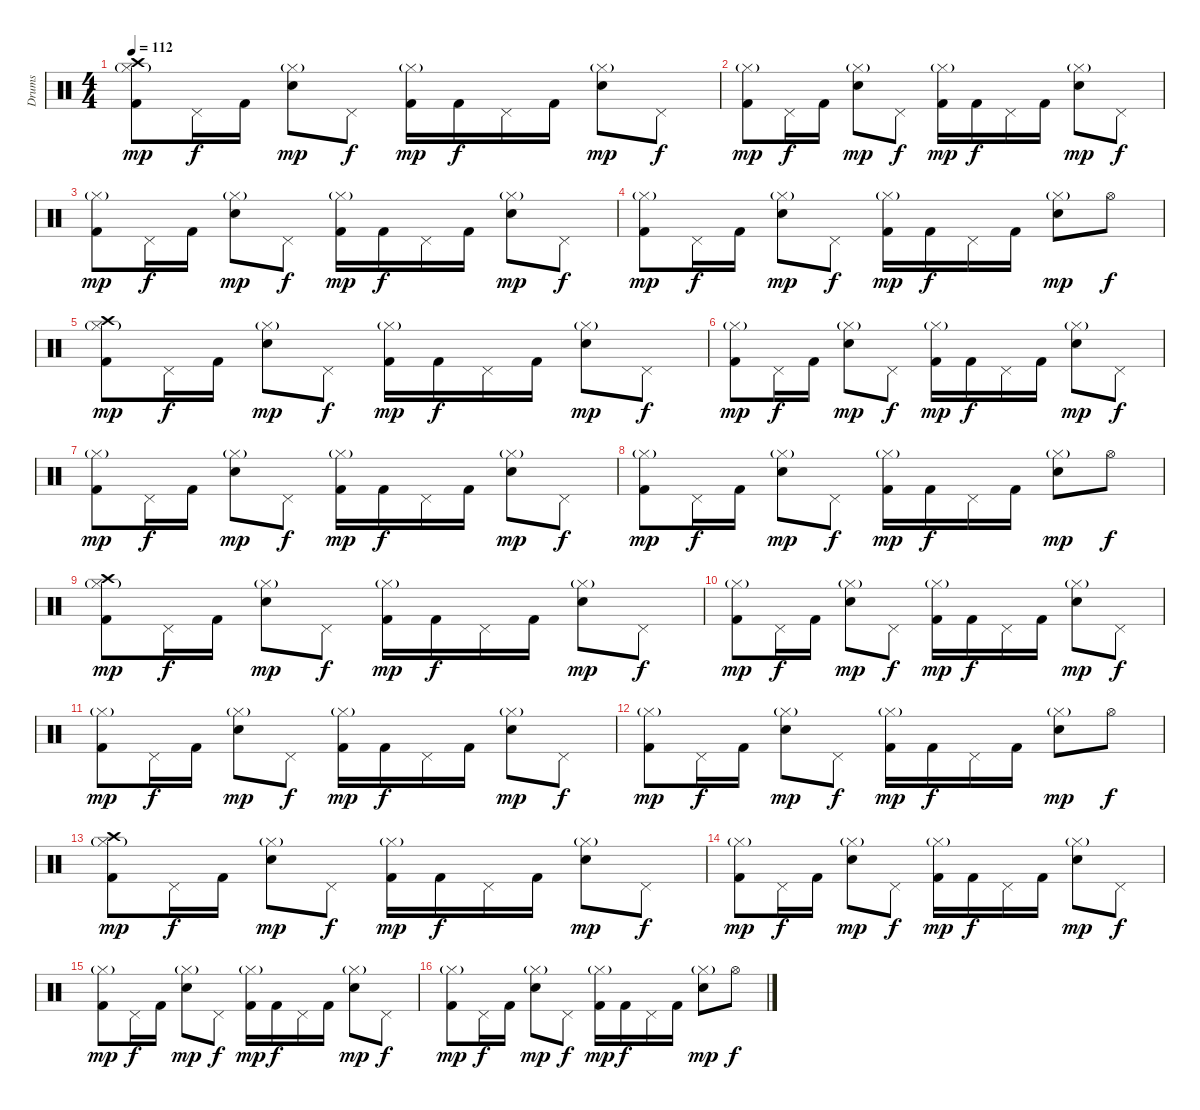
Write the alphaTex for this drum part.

\track ("Drums" "Drums") {instrument percussion}
\staff {score}
\articulation defaults
\ts (4 4)
\tempo 112
\clef neutral
\ks c
("Hi-Hat (closed)"{g} "Crash high (hit)" "Kick (hit) 2").8{dy mp} "Pedal Hi-Hat (hit)".16{dy f} "Kick (hit) 2".16 ("Hi-Hat (closed)"{g} "Snare (hit) 2").8{dy mp} "Pedal Hi-Hat (hit)".8{dy f} ("Hi-Hat (closed)"{g} "Kick (hit) 2").16{dy mp} "Kick (hit) 2".16{dy f} "Pedal Hi-Hat (hit)".16 "Kick (hit) 2".16 ("Hi-Hat (closed)"{g} "Snare (hit) 2").8{dy mp} "Pedal Hi-Hat (hit)".8{dy f} |
("Hi-Hat (closed)"{g} "Kick (hit) 2").8{dy mp} "Pedal Hi-Hat (hit)".16{dy f} "Kick (hit) 2".16 ("Hi-Hat (closed)"{g} "Snare (hit) 2").8{dy mp} "Pedal Hi-Hat (hit)".8{dy f} ("Hi-Hat (closed)"{g} "Kick (hit) 2").16{dy mp} "Kick (hit) 2".16{dy f} "Pedal Hi-Hat (hit)".16 "Kick (hit) 2".16 ("Hi-Hat (closed)"{g} "Snare (hit) 2").8{dy mp} "Pedal Hi-Hat (hit)".8{dy f} |
("Hi-Hat (closed)"{g} "Kick (hit) 2").8{dy mp} "Pedal Hi-Hat (hit)".16{dy f} "Kick (hit) 2".16 ("Hi-Hat (closed)"{g} "Snare (hit) 2").8{dy mp} "Pedal Hi-Hat (hit)".8{dy f} ("Hi-Hat (closed)"{g} "Kick (hit) 2").16{dy mp} "Kick (hit) 2".16{dy f} "Pedal Hi-Hat (hit)".16 "Kick (hit) 2".16 ("Hi-Hat (closed)"{g} "Snare (hit) 2").8{dy mp} "Pedal Hi-Hat (hit)".8{dy f} |
("Hi-Hat (closed)"{g} "Kick (hit) 2").8{dy mp} "Pedal Hi-Hat (hit)".16{dy f} "Kick (hit) 2".16 ("Hi-Hat (closed)"{g} "Snare (hit) 2").8{dy mp} "Pedal Hi-Hat (hit)".8{dy f} ("Hi-Hat (closed)"{g} "Kick (hit) 2").16{dy mp} "Kick (hit) 2".16{dy f} "Pedal Hi-Hat (hit)".16 "Kick (hit) 2".16 ("Hi-Hat (closed)"{g} "Snare (hit) 2").8{dy mp} "Hi-Hat (open)".8{dy f} |
("Hi-Hat (closed)"{g} "Crash high (hit)" "Kick (hit) 2").8{dy mp} "Pedal Hi-Hat (hit)".16{dy f} "Kick (hit) 2".16 ("Hi-Hat (closed)"{g} "Snare (hit) 2").8{dy mp} "Pedal Hi-Hat (hit)".8{dy f} ("Hi-Hat (closed)"{g} "Kick (hit) 2").16{dy mp} "Kick (hit) 2".16{dy f} "Pedal Hi-Hat (hit)".16 "Kick (hit) 2".16 ("Hi-Hat (closed)"{g} "Snare (hit) 2").8{dy mp} "Pedal Hi-Hat (hit)".8{dy f} |
("Hi-Hat (closed)"{g} "Kick (hit) 2").8{dy mp} "Pedal Hi-Hat (hit)".16{dy f} "Kick (hit) 2".16 ("Hi-Hat (closed)"{g} "Snare (hit) 2").8{dy mp} "Pedal Hi-Hat (hit)".8{dy f} ("Hi-Hat (closed)"{g} "Kick (hit) 2").16{dy mp} "Kick (hit) 2".16{dy f} "Pedal Hi-Hat (hit)".16 "Kick (hit) 2".16 ("Hi-Hat (closed)"{g} "Snare (hit) 2").8{dy mp} "Pedal Hi-Hat (hit)".8{dy f} |
("Hi-Hat (closed)"{g} "Kick (hit) 2").8{dy mp} "Pedal Hi-Hat (hit)".16{dy f} "Kick (hit) 2".16 ("Hi-Hat (closed)"{g} "Snare (hit) 2").8{dy mp} "Pedal Hi-Hat (hit)".8{dy f} ("Hi-Hat (closed)"{g} "Kick (hit) 2").16{dy mp} "Kick (hit) 2".16{dy f} "Pedal Hi-Hat (hit)".16 "Kick (hit) 2".16 ("Hi-Hat (closed)"{g} "Snare (hit) 2").8{dy mp} "Pedal Hi-Hat (hit)".8{dy f} |
("Hi-Hat (closed)"{g} "Kick (hit) 2").8{dy mp} "Pedal Hi-Hat (hit)".16{dy f} "Kick (hit) 2".16 ("Hi-Hat (closed)"{g} "Snare (hit) 2").8{dy mp} "Pedal Hi-Hat (hit)".8{dy f} ("Hi-Hat (closed)"{g} "Kick (hit) 2").16{dy mp} "Kick (hit) 2".16{dy f} "Pedal Hi-Hat (hit)".16 "Kick (hit) 2".16 ("Hi-Hat (closed)"{g} "Snare (hit) 2").8{dy mp} "Hi-Hat (open)".8{dy f} |
("Hi-Hat (closed)"{g} "Crash high (hit)" "Kick (hit) 2").8{dy mp} "Pedal Hi-Hat (hit)".16{dy f} "Kick (hit) 2".16 ("Hi-Hat (closed)"{g} "Snare (hit) 2").8{dy mp} "Pedal Hi-Hat (hit)".8{dy f} ("Hi-Hat (closed)"{g} "Kick (hit) 2").16{dy mp} "Kick (hit) 2".16{dy f} "Pedal Hi-Hat (hit)".16 "Kick (hit) 2".16 ("Hi-Hat (closed)"{g} "Snare (hit) 2").8{dy mp} "Pedal Hi-Hat (hit)".8{dy f} |
("Hi-Hat (closed)"{g} "Kick (hit) 2").8{dy mp} "Pedal Hi-Hat (hit)".16{dy f} "Kick (hit) 2".16 ("Hi-Hat (closed)"{g} "Snare (hit) 2").8{dy mp} "Pedal Hi-Hat (hit)".8{dy f} ("Hi-Hat (closed)"{g} "Kick (hit) 2").16{dy mp} "Kick (hit) 2".16{dy f} "Pedal Hi-Hat (hit)".16 "Kick (hit) 2".16 ("Hi-Hat (closed)"{g} "Snare (hit) 2").8{dy mp} "Pedal Hi-Hat (hit)".8{dy f} |
("Hi-Hat (closed)"{g} "Kick (hit) 2").8{dy mp} "Pedal Hi-Hat (hit)".16{dy f} "Kick (hit) 2".16 ("Hi-Hat (closed)"{g} "Snare (hit) 2").8{dy mp} "Pedal Hi-Hat (hit)".8{dy f} ("Hi-Hat (closed)"{g} "Kick (hit) 2").16{dy mp} "Kick (hit) 2".16{dy f} "Pedal Hi-Hat (hit)".16 "Kick (hit) 2".16 ("Hi-Hat (closed)"{g} "Snare (hit) 2").8{dy mp} "Pedal Hi-Hat (hit)".8{dy f} |
("Hi-Hat (closed)"{g} "Kick (hit) 2").8{dy mp} "Pedal Hi-Hat (hit)".16{dy f} "Kick (hit) 2".16 ("Hi-Hat (closed)"{g} "Snare (hit) 2").8{dy mp} "Pedal Hi-Hat (hit)".8{dy f} ("Hi-Hat (closed)"{g} "Kick (hit) 2").16{dy mp} "Kick (hit) 2".16{dy f} "Pedal Hi-Hat (hit)".16 "Kick (hit) 2".16 ("Hi-Hat (closed)"{g} "Snare (hit) 2").8{dy mp} "Hi-Hat (open)".8{dy f} |
("Hi-Hat (closed)"{g} "Crash high (hit)" "Kick (hit) 2").8{dy mp} "Pedal Hi-Hat (hit)".16{dy f} "Kick (hit) 2".16 ("Hi-Hat (closed)"{g} "Snare (hit) 2").8{dy mp} "Pedal Hi-Hat (hit)".8{dy f} ("Hi-Hat (closed)"{g} "Kick (hit) 2").16{dy mp} "Kick (hit) 2".16{dy f} "Pedal Hi-Hat (hit)".16 "Kick (hit) 2".16 ("Hi-Hat (closed)"{g} "Snare (hit) 2").8{dy mp} "Pedal Hi-Hat (hit)".8{dy f} |
("Hi-Hat (closed)"{g} "Kick (hit) 2").8{dy mp} "Pedal Hi-Hat (hit)".16{dy f} "Kick (hit) 2".16 ("Hi-Hat (closed)"{g} "Snare (hit) 2").8{dy mp} "Pedal Hi-Hat (hit)".8{dy f} ("Hi-Hat (closed)"{g} "Kick (hit) 2").16{dy mp} "Kick (hit) 2".16{dy f} "Pedal Hi-Hat (hit)".16 "Kick (hit) 2".16 ("Hi-Hat (closed)"{g} "Snare (hit) 2").8{dy mp} "Pedal Hi-Hat (hit)".8{dy f} |
("Hi-Hat (closed)"{g} "Kick (hit) 2").8{dy mp} "Pedal Hi-Hat (hit)".16{dy f} "Kick (hit) 2".16 ("Hi-Hat (closed)"{g} "Snare (hit) 2").8{dy mp} "Pedal Hi-Hat (hit)".8{dy f} ("Hi-Hat (closed)"{g} "Kick (hit) 2").16{dy mp} "Kick (hit) 2".16{dy f} "Pedal Hi-Hat (hit)".16 "Kick (hit) 2".16 ("Hi-Hat (closed)"{g} "Snare (hit) 2").8{dy mp} "Pedal Hi-Hat (hit)".8{dy f} |
("Hi-Hat (closed)"{g} "Kick (hit) 2").8{dy mp} "Pedal Hi-Hat (hit)".16{dy f} "Kick (hit) 2".16 ("Hi-Hat (closed)"{g} "Snare (hit) 2").8{dy mp} "Pedal Hi-Hat (hit)".8{dy f} ("Hi-Hat (closed)"{g} "Kick (hit) 2").16{dy mp} "Kick (hit) 2".16{dy f} "Pedal Hi-Hat (hit)".16 "Kick (hit) 2".16 ("Hi-Hat (closed)"{g} "Snare (hit) 2").8{dy mp} "Hi-Hat (open)".8{dy f}
